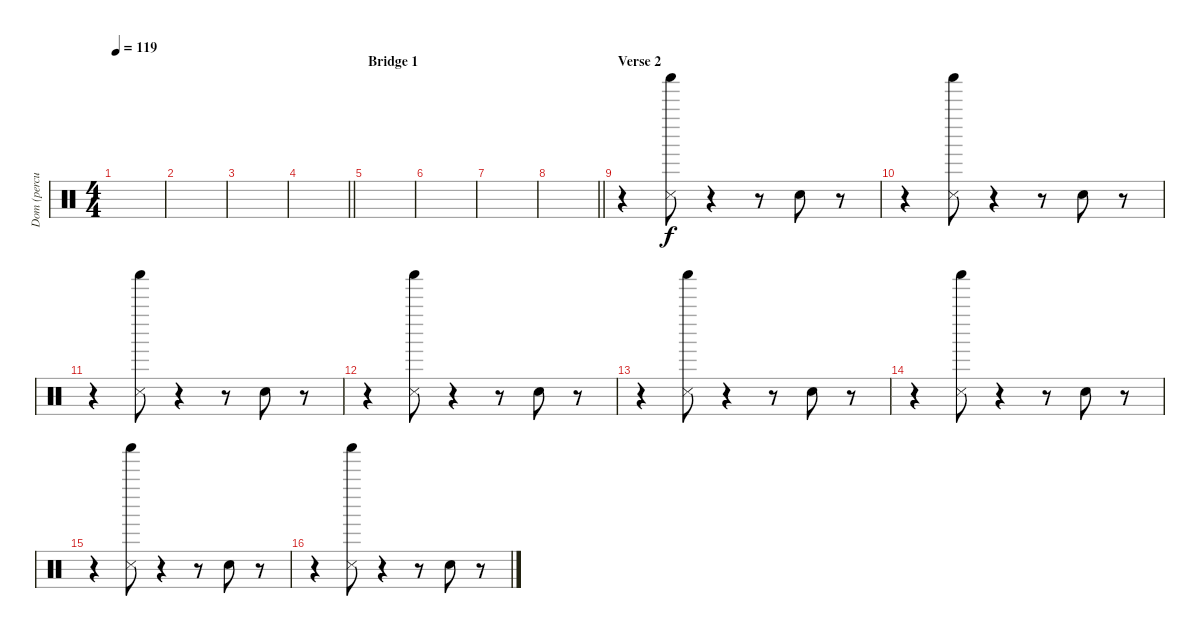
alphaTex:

\track ("Dom (percussions)" "Dom (percu") {instrument percussion}
\staff {score}
\articulation defaults
\ts (4 4)
\tempo 119
\clef neutral
\ks c
|
|
|
\barLineRight lightlight
|
\section ("" "Bridge 1")
|
|
|
\barLineRight lightlight
|
\section ("" "Verse 2")
r.4 ("Shaker (hit)" "Metronome (hit)").8 r.4 r.8 "Hand Clap (hit)".8 r.8 |
r.4 ("Shaker (hit)" "Metronome (hit)").8 r.4 r.8 "Hand Clap (hit)".8 r.8 |
r.4 ("Shaker (hit)" "Metronome (hit)").8 r.4 r.8 "Hand Clap (hit)".8 r.8 |
r.4 ("Shaker (hit)" "Metronome (hit)").8 r.4 r.8 "Hand Clap (hit)".8 r.8 |
r.4 ("Shaker (hit)" "Metronome (hit)").8 r.4 r.8 "Hand Clap (hit)".8 r.8 |
r.4 ("Shaker (hit)" "Metronome (hit)").8 r.4 r.8 "Hand Clap (hit)".8 r.8 |
r.4 ("Shaker (hit)" "Metronome (hit)").8 r.4 r.8 "Hand Clap (hit)".8 r.8 |
r.4 ("Shaker (hit)" "Metronome (hit)").8 r.4 r.8 "Hand Clap (hit)".8 r.8
